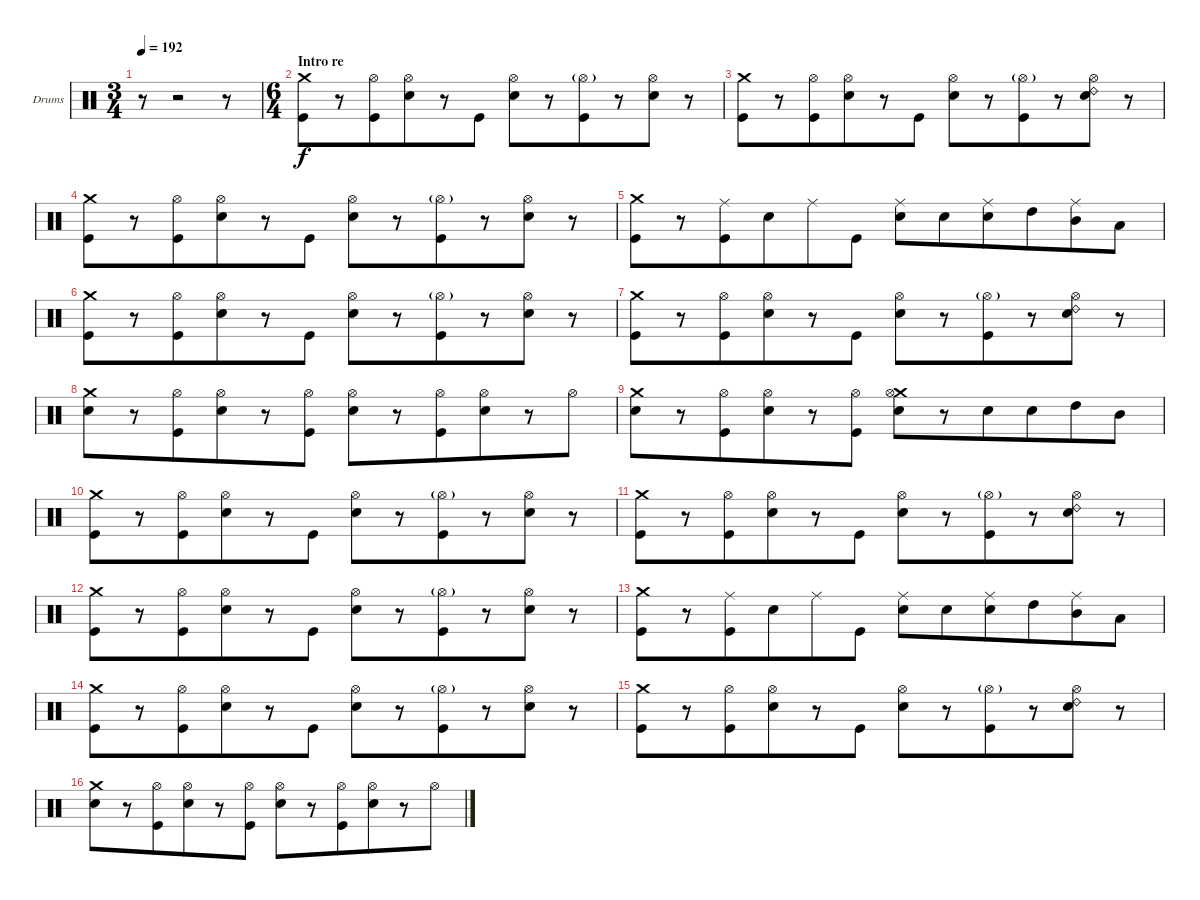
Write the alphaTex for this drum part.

\bracketExtendMode groupsimilarinstruments
\firstSystemTrackNameOrientation horizontal
\otherSystemsTrackNameOrientation horizontal
\track ("Drumkit" "Drums") {instrument percussion}
\staff {score}
\articulation defaults
\ts (3 4)
\beaming (8 2 2 2)
\tempo 192
\clef neutral
\ks c
r.8{dy f} r.2 r.8 |
\ts (6 4)
\beaming (8 6 6)
\section ("" "Intro re")
("Crash medium (hit)" "Kick (hit)").8 r.8 ("Hi-Hat (open)" "Kick (hit)").8 ("Hi-Hat (open)" "Snare (hit) 2").8 r.8 "Kick (hit)".8 ("Hi-Hat (open)" "Snare (hit) 2").8 r.8 ("Hi-Hat (open)"{g} "Kick (hit)").8 r.8 ("Hi-Hat (open)" "Snare (hit) 2").8 r.8 |
("Crash medium (hit)" "Kick (hit)").8 r.8 ("Hi-Hat (open)" "Kick (hit)").8 ("Hi-Hat (open)" "Snare (hit) 2").8 r.8 "Kick (hit)".8 ("Hi-Hat (open)" "Snare (hit) 2").8 r.8 ("Hi-Hat (open)"{g} "Kick (hit)").8 r.8 ("Ride (bell) 2" "Hi-Hat (open)" "Snare (hit) 2").8 r.8 |
("Crash medium (hit)" "Kick (hit)").8 r.8 ("Hi-Hat (open)" "Kick (hit)").8 ("Hi-Hat (open)" "Snare (hit) 2").8 r.8 "Kick (hit)".8 ("Hi-Hat (open)" "Snare (hit) 2").8 r.8 ("Hi-Hat (open)"{g} "Kick (hit)").8 r.8 ("Hi-Hat (open)" "Snare (hit) 2").8 r.8 |
("Crash medium (hit)" "Kick (hit)").8 r.8 ("Ride (middle)" "Kick (hit)").8 "Snare (hit) 2".8 "Ride (middle)".8 "Kick (hit)".8 ("Ride (middle)" "Snare (hit) 2").8 "Snare (hit) 2".8 ("Ride (middle)" "Snare (hit) 2").8 "High Tom (hit)".8 ("Ride (middle)" "Mid Tom (hit)").8 "Low Tom (hit)".8 |
("Crash medium (hit)" "Kick (hit)").8 r.8 ("Hi-Hat (open)" "Kick (hit)").8 ("Hi-Hat (open)" "Snare (hit) 2").8 r.8 "Kick (hit)".8 ("Hi-Hat (open)" "Snare (hit) 2").8 r.8 ("Hi-Hat (open)"{g} "Kick (hit)").8 r.8 ("Hi-Hat (open)" "Snare (hit) 2").8 r.8 |
("Crash medium (hit)" "Kick (hit)").8 r.8 ("Hi-Hat (open)" "Kick (hit)").8 ("Hi-Hat (open)" "Snare (hit) 2").8 r.8 "Kick (hit)".8 ("Hi-Hat (open)" "Snare (hit) 2").8 r.8 ("Hi-Hat (open)"{g} "Kick (hit)").8 r.8 ("Ride (bell) 2" "Hi-Hat (open)" "Snare (hit) 2").8 r.8 |
("Crash medium (hit)" "Snare (hit) 2").8 r.8 ("Hi-Hat (open)" "Kick (hit)").8 ("Hi-Hat (open)" "Snare (hit) 2").8 r.8 ("Hi-Hat (open)" "Kick (hit)").8 ("Hi-Hat (open)" "Snare (hit) 2").8 r.8 ("Hi-Hat (open)" "Kick (hit)").8 ("Hi-Hat (open)" "Snare (hit) 2").8 r.8 "Hi-Hat (open)".8 |
("Crash medium (hit)" "Snare (hit) 2").8 r.8 ("Hi-Hat (open)" "Kick (hit)").8 ("Hi-Hat (open)" "Snare (hit) 2").8 r.8 ("Hi-Hat (open)" "Kick (hit)").8 ("Crash medium (hit)" "Hi-Hat (open)" "Snare (hit) 2").8 r.8 "Snare (hit) 2".8 "Snare (hit) 2".8 "High Tom (hit)".8 "Mid Tom (hit)".8 |
("Crash medium (hit)" "Kick (hit)").8 r.8 ("Hi-Hat (open)" "Kick (hit)").8 ("Hi-Hat (open)" "Snare (hit) 2").8 r.8 "Kick (hit)".8 ("Hi-Hat (open)" "Snare (hit) 2").8 r.8 ("Hi-Hat (open)"{g} "Kick (hit)").8 r.8 ("Hi-Hat (open)" "Snare (hit) 2").8 r.8 |
("Crash medium (hit)" "Kick (hit)").8 r.8 ("Hi-Hat (open)" "Kick (hit)").8 ("Hi-Hat (open)" "Snare (hit) 2").8 r.8 "Kick (hit)".8 ("Hi-Hat (open)" "Snare (hit) 2").8 r.8 ("Hi-Hat (open)"{g} "Kick (hit)").8 r.8 ("Ride (bell) 2" "Hi-Hat (open)" "Snare (hit) 2").8 r.8 |
("Crash medium (hit)" "Kick (hit)").8 r.8 ("Hi-Hat (open)" "Kick (hit)").8 ("Hi-Hat (open)" "Snare (hit) 2").8 r.8 "Kick (hit)".8 ("Hi-Hat (open)" "Snare (hit) 2").8 r.8 ("Hi-Hat (open)"{g} "Kick (hit)").8 r.8 ("Hi-Hat (open)" "Snare (hit) 2").8 r.8 |
("Crash medium (hit)" "Kick (hit)").8 r.8 ("Ride (middle)" "Kick (hit)").8 "Snare (hit) 2".8 "Ride (middle)".8 "Kick (hit)".8 ("Ride (middle)" "Snare (hit) 2").8 "Snare (hit) 2".8 ("Ride (middle)" "Snare (hit) 2").8 "High Tom (hit)".8 ("Ride (middle)" "Mid Tom (hit)").8 "Low Tom (hit)".8 |
("Crash medium (hit)" "Kick (hit)").8 r.8 ("Hi-Hat (open)" "Kick (hit)").8 ("Hi-Hat (open)" "Snare (hit) 2").8 r.8 "Kick (hit)".8 ("Hi-Hat (open)" "Snare (hit) 2").8 r.8 ("Hi-Hat (open)"{g} "Kick (hit)").8 r.8 ("Hi-Hat (open)" "Snare (hit) 2").8 r.8 |
("Crash medium (hit)" "Kick (hit)").8 r.8 ("Hi-Hat (open)" "Kick (hit)").8 ("Hi-Hat (open)" "Snare (hit) 2").8 r.8 "Kick (hit)".8 ("Hi-Hat (open)" "Snare (hit) 2").8 r.8 ("Hi-Hat (open)"{g} "Kick (hit)").8 r.8 ("Ride (bell) 2" "Hi-Hat (open)" "Snare (hit) 2").8 r.8 |
("Crash medium (hit)" "Snare (hit) 2").8 r.8 ("Hi-Hat (open)" "Kick (hit)").8 ("Hi-Hat (open)" "Snare (hit) 2").8 r.8 ("Hi-Hat (open)" "Kick (hit)").8 ("Hi-Hat (open)" "Snare (hit) 2").8 r.8 ("Hi-Hat (open)" "Kick (hit)").8 ("Hi-Hat (open)" "Snare (hit) 2").8 r.8 "Hi-Hat (open)".8
